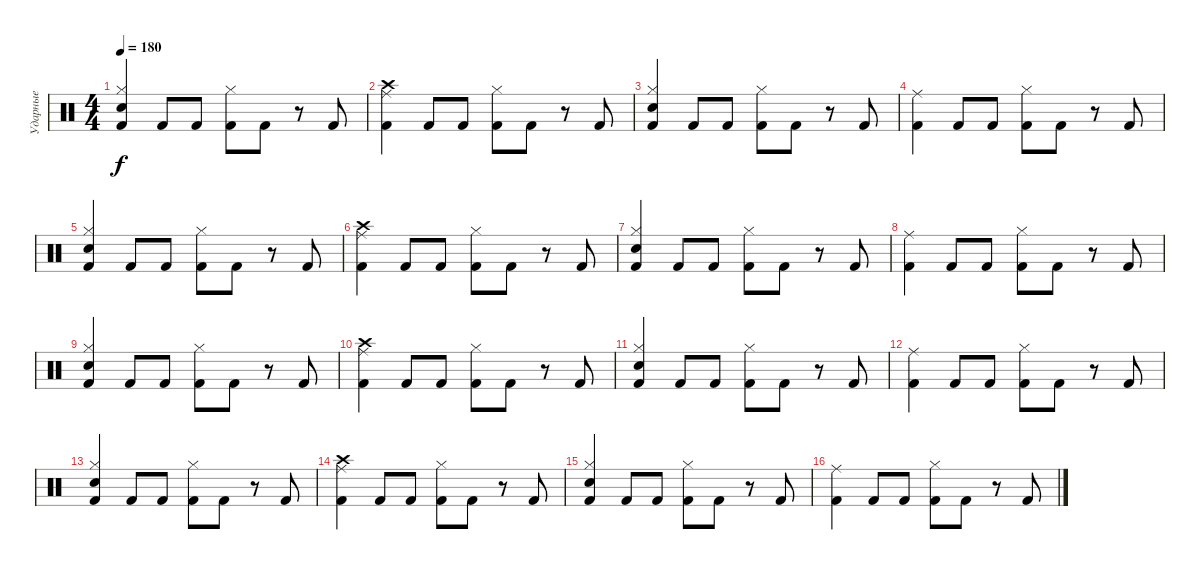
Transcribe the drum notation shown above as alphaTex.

\track ("Ударные" "Ударные") {instrument percussion}
\staff {score}
\articulation defaults
\ts (4 4)
\tempo 180
\clef neutral
\ks c
("Snare (hit) 2" "Hi-Hat (closed)" "Kick (hit) 2").4{dy f} "Kick (hit) 2".8 "Kick (hit) 2".8 ("Kick (hit) 2" "Hi-Hat (closed)").8 "Kick (hit) 2".8 r.8 "Kick (hit) 2".8 |
("Ride (middle)" "Crash high (hit)" "Kick (hit) 2").4 "Kick (hit) 2".8 "Kick (hit) 2".8 ("Kick (hit) 2" "Hi-Hat (closed)").8 "Kick (hit) 2".8 r.8 "Kick (hit) 2".8 |
("Snare (hit) 2" "Hi-Hat (closed)" "Kick (hit) 2").4 "Kick (hit) 2".8 "Kick (hit) 2".8 ("Kick (hit) 2" "Hi-Hat (closed)").8 "Kick (hit) 2".8 r.8 "Kick (hit) 2".8 |
("Ride (middle)" "Kick (hit) 2").4 "Kick (hit) 2".8 "Kick (hit) 2".8 ("Kick (hit) 2" "Hi-Hat (closed)").8 "Kick (hit) 2".8 r.8 "Kick (hit) 2".8 |
("Snare (hit) 2" "Hi-Hat (closed)" "Kick (hit) 2").4 "Kick (hit) 2".8 "Kick (hit) 2".8 ("Kick (hit) 2" "Hi-Hat (closed)").8 "Kick (hit) 2".8 r.8 "Kick (hit) 2".8 |
("Ride (middle)" "Crash high (hit)" "Kick (hit) 2").4 "Kick (hit) 2".8 "Kick (hit) 2".8 ("Kick (hit) 2" "Hi-Hat (closed)").8 "Kick (hit) 2".8 r.8 "Kick (hit) 2".8 |
("Snare (hit) 2" "Hi-Hat (closed)" "Kick (hit) 2").4 "Kick (hit) 2".8 "Kick (hit) 2".8 ("Kick (hit) 2" "Hi-Hat (closed)").8 "Kick (hit) 2".8 r.8 "Kick (hit) 2".8 |
("Ride (middle)" "Kick (hit) 2").4 "Kick (hit) 2".8 "Kick (hit) 2".8 ("Kick (hit) 2" "Hi-Hat (closed)").8 "Kick (hit) 2".8 r.8 "Kick (hit) 2".8 |
("Snare (hit) 2" "Hi-Hat (closed)" "Kick (hit) 2").4 "Kick (hit) 2".8 "Kick (hit) 2".8 ("Kick (hit) 2" "Hi-Hat (closed)").8 "Kick (hit) 2".8 r.8 "Kick (hit) 2".8 |
("Ride (middle)" "Crash high (hit)" "Kick (hit) 2").4 "Kick (hit) 2".8 "Kick (hit) 2".8 ("Kick (hit) 2" "Hi-Hat (closed)").8 "Kick (hit) 2".8 r.8 "Kick (hit) 2".8 |
("Snare (hit) 2" "Hi-Hat (closed)" "Kick (hit) 2").4 "Kick (hit) 2".8 "Kick (hit) 2".8 ("Kick (hit) 2" "Hi-Hat (closed)").8 "Kick (hit) 2".8 r.8 "Kick (hit) 2".8 |
("Ride (middle)" "Kick (hit) 2").4 "Kick (hit) 2".8 "Kick (hit) 2".8 ("Kick (hit) 2" "Hi-Hat (closed)").8 "Kick (hit) 2".8 r.8 "Kick (hit) 2".8 |
("Snare (hit) 2" "Hi-Hat (closed)" "Kick (hit) 2").4 "Kick (hit) 2".8 "Kick (hit) 2".8 ("Kick (hit) 2" "Hi-Hat (closed)").8 "Kick (hit) 2".8 r.8 "Kick (hit) 2".8 |
("Ride (middle)" "Crash high (hit)" "Kick (hit) 2").4 "Kick (hit) 2".8 "Kick (hit) 2".8 ("Kick (hit) 2" "Hi-Hat (closed)").8 "Kick (hit) 2".8 r.8 "Kick (hit) 2".8 |
("Snare (hit) 2" "Hi-Hat (closed)" "Kick (hit) 2").4 "Kick (hit) 2".8 "Kick (hit) 2".8 ("Kick (hit) 2" "Hi-Hat (closed)").8 "Kick (hit) 2".8 r.8 "Kick (hit) 2".8 |
("Ride (middle)" "Kick (hit) 2").4 "Kick (hit) 2".8 "Kick (hit) 2".8 ("Kick (hit) 2" "Hi-Hat (closed)").8 "Kick (hit) 2".8 r.8 "Kick (hit) 2".8
